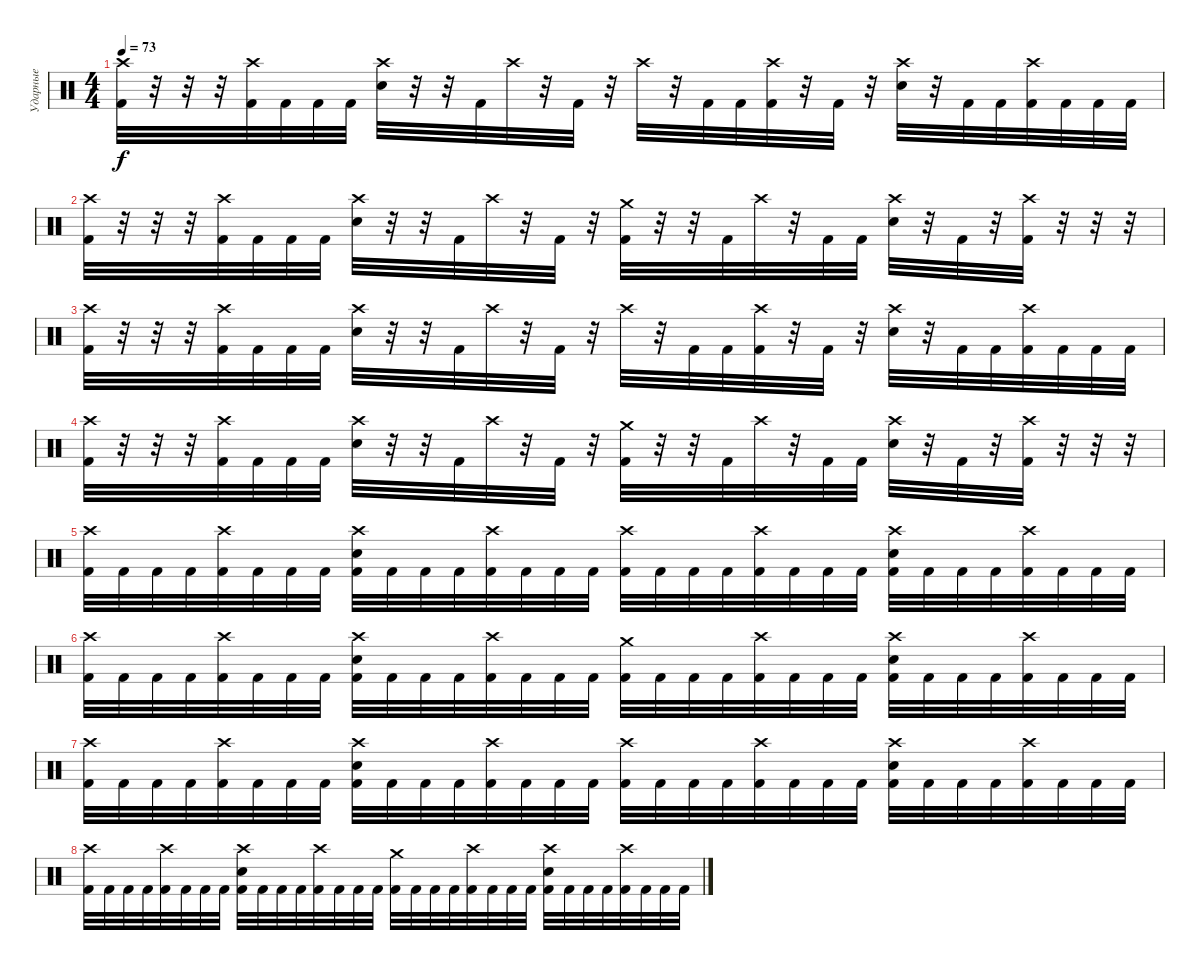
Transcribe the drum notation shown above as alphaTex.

\track ("Ударные" "Ударные") {instrument percussion}
\staff {score}
\articulation defaults
\ts (4 4)
\tempo 73
\clef neutral
\ks c
("Crash high (hit)" "Kick (hit) 2").32{dy f} r.32 r.32 r.32 ("Crash high (hit)" "Kick (hit) 2").32 "Kick (hit) 2".32 "Kick (hit) 2".32 "Kick (hit) 2".32 ("Crash high (hit)" "Snare (hit) 2").32 r.32 r.32 "Kick (hit) 2".32 "Crash high (hit)".32 r.32 "Kick (hit) 2".32 r.32 "Crash high (hit)".32 r.32 "Kick (hit) 2".32 "Kick (hit) 2".32 ("Crash high (hit)" "Kick (hit) 2").32 r.32 "Kick (hit) 2".32 r.32 ("Crash high (hit)" "Snare (hit) 2").32 r.32 "Kick (hit) 2".32 "Kick (hit) 2".32 ("Crash high (hit)" "Kick (hit) 2").32 "Kick (hit) 2".32 "Kick (hit) 2".32 "Kick (hit) 2".32 |
("Crash high (hit)" "Kick (hit) 2").32 r.32 r.32 r.32 ("Crash high (hit)" "Kick (hit) 2").32 "Kick (hit) 2".32 "Kick (hit) 2".32 "Kick (hit) 2".32 ("Crash high (hit)" "Snare (hit) 2").32 r.32 r.32 "Kick (hit) 2".32 "Crash high (hit)".32 r.32 "Kick (hit) 2".32 r.32 ("Crash medium (hit)" "Kick (hit) 2").32 r.32 r.32 "Kick (hit) 2".32 "Crash high (hit)".32 r.32 "Kick (hit) 2".32 "Kick (hit) 2".32 ("Crash high (hit)" "Snare (hit) 2").32 r.32 "Kick (hit) 2".32 r.32 ("Crash high (hit)" "Kick (hit) 2").32 r.32 r.32 r.32 |
("Crash high (hit)" "Kick (hit) 2").32 r.32 r.32 r.32 ("Crash high (hit)" "Kick (hit) 2").32 "Kick (hit) 2".32 "Kick (hit) 2".32 "Kick (hit) 2".32 ("Crash high (hit)" "Snare (hit) 2").32 r.32 r.32 "Kick (hit) 2".32 "Crash high (hit)".32 r.32 "Kick (hit) 2".32 r.32 "Crash high (hit)".32 r.32 "Kick (hit) 2".32 "Kick (hit) 2".32 ("Crash high (hit)" "Kick (hit) 2").32 r.32 "Kick (hit) 2".32 r.32 ("Crash high (hit)" "Snare (hit) 2").32 r.32 "Kick (hit) 2".32 "Kick (hit) 2".32 ("Crash high (hit)" "Kick (hit) 2").32 "Kick (hit) 2".32 "Kick (hit) 2".32 "Kick (hit) 2".32 |
("Crash high (hit)" "Kick (hit) 2").32 r.32 r.32 r.32 ("Crash high (hit)" "Kick (hit) 2").32 "Kick (hit) 2".32 "Kick (hit) 2".32 "Kick (hit) 2".32 ("Crash high (hit)" "Snare (hit) 2").32 r.32 r.32 "Kick (hit) 2".32 "Crash high (hit)".32 r.32 "Kick (hit) 2".32 r.32 ("Crash medium (hit)" "Kick (hit) 2").32 r.32 r.32 "Kick (hit) 2".32 "Crash high (hit)".32 r.32 "Kick (hit) 2".32 "Kick (hit) 2".32 ("Crash high (hit)" "Snare (hit) 2").32 r.32 "Kick (hit) 2".32 r.32 ("Crash high (hit)" "Kick (hit) 2").32 r.32 r.32 r.32 |
("Crash high (hit)" "Kick (hit) 2").32 "Kick (hit) 2".32 "Kick (hit) 2".32 "Kick (hit) 2".32 ("Crash high (hit)" "Kick (hit) 2").32 "Kick (hit) 2".32 "Kick (hit) 2".32 "Kick (hit) 2".32 ("Crash high (hit)" "Snare (hit) 2" "Kick (hit) 2").32 "Kick (hit) 2".32 "Kick (hit) 2".32 "Kick (hit) 2".32 ("Crash high (hit)" "Kick (hit) 2").32 "Kick (hit) 2".32 "Kick (hit) 2".32 "Kick (hit) 2".32 ("Crash high (hit)" "Kick (hit) 2").32 "Kick (hit) 2".32 "Kick (hit) 2".32 "Kick (hit) 2".32 ("Crash high (hit)" "Kick (hit) 2").32 "Kick (hit) 2".32 "Kick (hit) 2".32 "Kick (hit) 2".32 ("Crash high (hit)" "Snare (hit) 2" "Kick (hit) 2").32 "Kick (hit) 2".32 "Kick (hit) 2".32 "Kick (hit) 2".32 ("Crash high (hit)" "Kick (hit) 2").32 "Kick (hit) 2".32 "Kick (hit) 2".32 "Kick (hit) 2".32 |
("Crash high (hit)" "Kick (hit) 2").32 "Kick (hit) 2".32 "Kick (hit) 2".32 "Kick (hit) 2".32 ("Crash high (hit)" "Kick (hit) 2").32 "Kick (hit) 2".32 "Kick (hit) 2".32 "Kick (hit) 2".32 ("Crash high (hit)" "Snare (hit) 2" "Kick (hit) 2").32 "Kick (hit) 2".32 "Kick (hit) 2".32 "Kick (hit) 2".32 ("Crash high (hit)" "Kick (hit) 2").32 "Kick (hit) 2".32 "Kick (hit) 2".32 "Kick (hit) 2".32 ("Crash medium (hit)" "Kick (hit) 2").32 "Kick (hit) 2".32 "Kick (hit) 2".32 "Kick (hit) 2".32 ("Crash high (hit)" "Kick (hit) 2").32 "Kick (hit) 2".32 "Kick (hit) 2".32 "Kick (hit) 2".32 ("Crash high (hit)" "Snare (hit) 2" "Kick (hit) 2").32 "Kick (hit) 2".32 "Kick (hit) 2".32 "Kick (hit) 2".32 ("Crash high (hit)" "Kick (hit) 2").32 "Kick (hit) 2".32 "Kick (hit) 2".32 "Kick (hit) 2".32 |
("Crash high (hit)" "Kick (hit) 2").32 "Kick (hit) 2".32 "Kick (hit) 2".32 "Kick (hit) 2".32 ("Crash high (hit)" "Kick (hit) 2").32 "Kick (hit) 2".32 "Kick (hit) 2".32 "Kick (hit) 2".32 ("Crash high (hit)" "Snare (hit) 2" "Kick (hit) 2").32 "Kick (hit) 2".32 "Kick (hit) 2".32 "Kick (hit) 2".32 ("Crash high (hit)" "Kick (hit) 2").32 "Kick (hit) 2".32 "Kick (hit) 2".32 "Kick (hit) 2".32 ("Crash high (hit)" "Kick (hit) 2").32 "Kick (hit) 2".32 "Kick (hit) 2".32 "Kick (hit) 2".32 ("Crash high (hit)" "Kick (hit) 2").32 "Kick (hit) 2".32 "Kick (hit) 2".32 "Kick (hit) 2".32 ("Crash high (hit)" "Snare (hit) 2" "Kick (hit) 2").32 "Kick (hit) 2".32 "Kick (hit) 2".32 "Kick (hit) 2".32 ("Crash high (hit)" "Kick (hit) 2").32 "Kick (hit) 2".32 "Kick (hit) 2".32 "Kick (hit) 2".32 |
("Crash high (hit)" "Kick (hit) 2").32 "Kick (hit) 2".32 "Kick (hit) 2".32 "Kick (hit) 2".32 ("Crash high (hit)" "Kick (hit) 2").32 "Kick (hit) 2".32 "Kick (hit) 2".32 "Kick (hit) 2".32 ("Crash high (hit)" "Snare (hit) 2" "Kick (hit) 2").32 "Kick (hit) 2".32 "Kick (hit) 2".32 "Kick (hit) 2".32 ("Crash high (hit)" "Kick (hit) 2").32 "Kick (hit) 2".32 "Kick (hit) 2".32 "Kick (hit) 2".32 ("Crash medium (hit)" "Kick (hit) 2").32 "Kick (hit) 2".32 "Kick (hit) 2".32 "Kick (hit) 2".32 ("Crash high (hit)" "Kick (hit) 2").32 "Kick (hit) 2".32 "Kick (hit) 2".32 "Kick (hit) 2".32 ("Crash high (hit)" "Snare (hit) 2" "Kick (hit) 2").32 "Kick (hit) 2".32 "Kick (hit) 2".32 "Kick (hit) 2".32 ("Crash high (hit)" "Kick (hit) 2").32 "Kick (hit) 2".32 "Kick (hit) 2".32 "Kick (hit) 2".32
